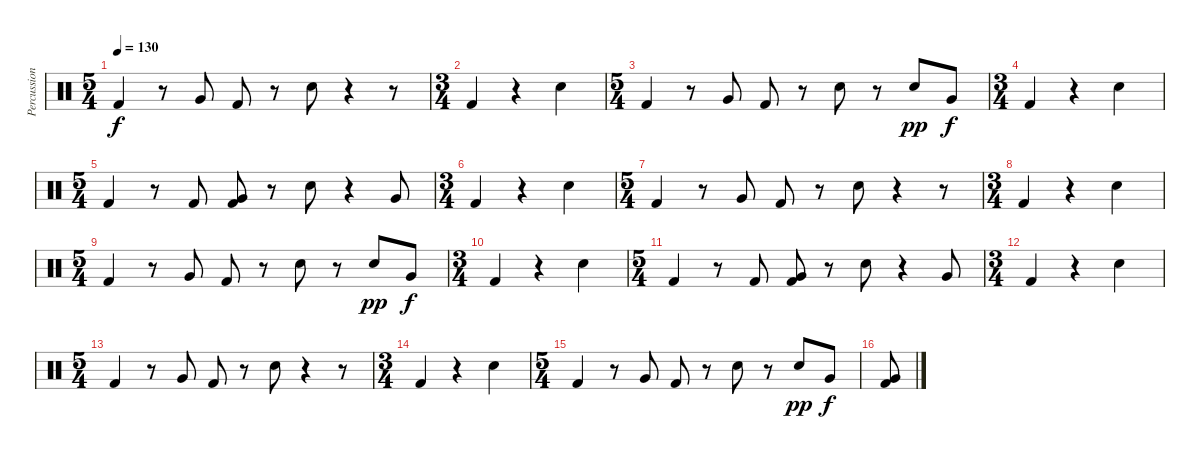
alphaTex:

\track ("Percussion" "Percussion") {instrument percussion}
\staff {score}
\articulation defaults
\ts (5 4)
\tempo 130
\clef neutral
\ks c "Kick (hit) 2".4{dy f}
r.8 "Very Low Tom (hit)".8 "Kick (hit) 2".8 r.8 "Electric Snare (hit)".8 r.4 r.8 |
\ts (3 4)
"Kick (hit) 2".4 r.4 "Electric Snare (hit)".4 |
\ts (5 4)
"Kick (hit) 2".4 r.8 "Very Low Tom (hit)".8 "Kick (hit) 2".8 r.8 "Electric Snare (hit)".8 r.8 "Electric Snare (hit)".8{dy pp} "Very Low Tom (hit)".8{dy f} |
\ts (3 4)
"Kick (hit) 2".4 r.4 "Electric Snare (hit)".4 |
\ts (5 4)
"Kick (hit) 2".4 r.8 "Kick (hit) 2".8 ("Very Low Tom (hit)" "Kick (hit) 2").8 r.8 "Electric Snare (hit)".8 r.4 "Very Low Tom (hit)".8 |
\ts (3 4)
"Kick (hit) 2".4 r.4 "Electric Snare (hit)".4 |
\ts (5 4)
"Kick (hit) 2".4 r.8 "Very Low Tom (hit)".8 "Kick (hit) 2".8 r.8 "Electric Snare (hit)".8 r.4 r.8 |
\ts (3 4)
"Kick (hit) 2".4 r.4 "Electric Snare (hit)".4 |
\ts (5 4)
"Kick (hit) 2".4 r.8 "Very Low Tom (hit)".8 "Kick (hit) 2".8 r.8 "Electric Snare (hit)".8 r.8 "Electric Snare (hit)".8{dy pp} "Very Low Tom (hit)".8{dy f} |
\ts (3 4)
"Kick (hit) 2".4 r.4 "Electric Snare (hit)".4 |
\ts (5 4)
"Kick (hit) 2".4 r.8 "Kick (hit) 2".8 ("Very Low Tom (hit)" "Kick (hit) 2").8 r.8 "Electric Snare (hit)".8 r.4 "Very Low Tom (hit)".8 |
\ts (3 4)
"Kick (hit) 2".4 r.4 "Electric Snare (hit)".4 |
\ts (5 4)
"Kick (hit) 2".4 r.8 "Very Low Tom (hit)".8 "Kick (hit) 2".8 r.8 "Electric Snare (hit)".8 r.4 r.8 |
\ts (3 4)
"Kick (hit) 2".4 r.4 "Electric Snare (hit)".4 |
\ts (5 4)
"Kick (hit) 2".4 r.8 "Very Low Tom (hit)".8 "Kick (hit) 2".8 r.8 "Electric Snare (hit)".8 r.8 "Electric Snare (hit)".8{dy pp} "Very Low Tom (hit)".8{dy f} |
("Very Low Tom (hit)" "Kick (hit) 2").8
